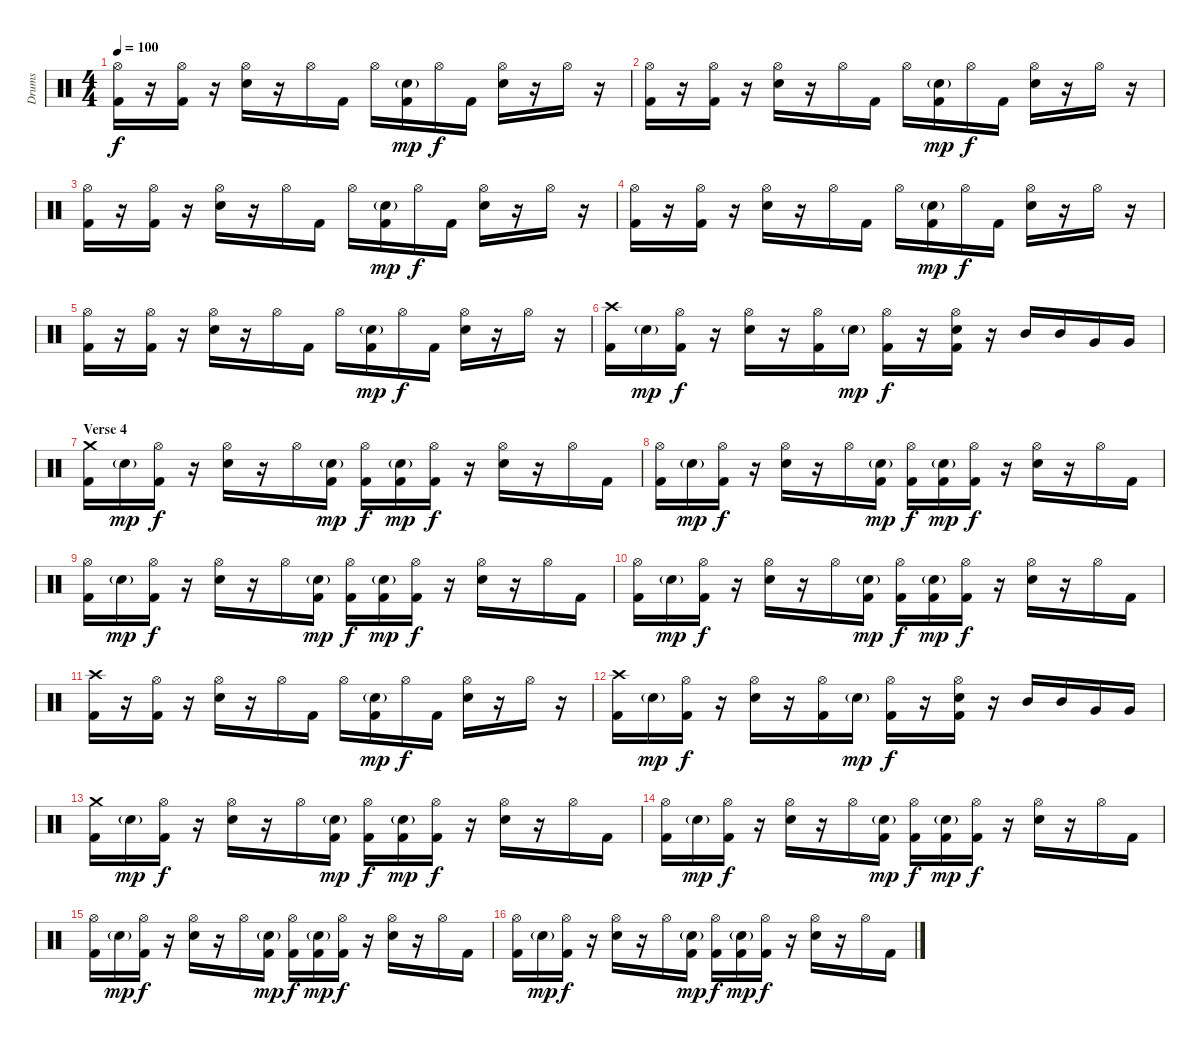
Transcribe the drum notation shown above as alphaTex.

\track ("Drums" "Drums") {instrument percussion}
\staff {score}
\articulation defaults
\ts (4 4)
\tempo 100
\clef neutral
\ks c
("Hi-Hat (open)" "Kick (hit) 2").16{dy f} r.16 ("Hi-Hat (open)" "Kick (hit) 2").16 r.16 ("Hi-Hat (open)" "Snare (hit) 2").16 r.16 "Hi-Hat (open)".16 "Kick (hit) 2".16 "Hi-Hat (open)".16 ("Snare (hit) 2"{g} "Kick (hit) 2").16{dy mp} "Hi-Hat (open)".16{dy f} "Kick (hit) 2".16 ("Hi-Hat (open)" "Snare (hit) 2").16 r.16 "Hi-Hat (open)".16 r.16 |
("Hi-Hat (open)" "Kick (hit) 2").16 r.16 ("Hi-Hat (open)" "Kick (hit) 2").16 r.16 ("Hi-Hat (open)" "Snare (hit) 2").16 r.16 "Hi-Hat (open)".16 "Kick (hit) 2".16 "Hi-Hat (open)".16 ("Snare (hit) 2"{g} "Kick (hit) 2").16{dy mp} "Hi-Hat (open)".16{dy f} "Kick (hit) 2".16 ("Hi-Hat (open)" "Snare (hit) 2").16 r.16 "Hi-Hat (open)".16 r.16 |
("Hi-Hat (open)" "Kick (hit) 2").16 r.16 ("Hi-Hat (open)" "Kick (hit) 2").16 r.16 ("Hi-Hat (open)" "Snare (hit) 2").16 r.16 "Hi-Hat (open)".16 "Kick (hit) 2".16 "Hi-Hat (open)".16 ("Snare (hit) 2"{g} "Kick (hit) 2").16{dy mp} "Hi-Hat (open)".16{dy f} "Kick (hit) 2".16 ("Hi-Hat (open)" "Snare (hit) 2").16 r.16 "Hi-Hat (open)".16 r.16 |
("Hi-Hat (open)" "Kick (hit) 2").16 r.16 ("Hi-Hat (open)" "Kick (hit) 2").16 r.16 ("Hi-Hat (open)" "Snare (hit) 2").16 r.16 "Hi-Hat (open)".16 "Kick (hit) 2".16 "Hi-Hat (open)".16 ("Snare (hit) 2"{g} "Kick (hit) 2").16{dy mp} "Hi-Hat (open)".16{dy f} "Kick (hit) 2".16 ("Hi-Hat (open)" "Snare (hit) 2").16 r.16 "Hi-Hat (open)".16 r.16 |
("Hi-Hat (open)" "Kick (hit) 2").16 r.16 ("Hi-Hat (open)" "Kick (hit) 2").16 r.16 ("Hi-Hat (open)" "Snare (hit) 2").16 r.16 "Hi-Hat (open)".16 "Kick (hit) 2".16 "Hi-Hat (open)".16 ("Snare (hit) 2"{g} "Kick (hit) 2").16{dy mp} "Hi-Hat (open)".16{dy f} "Kick (hit) 2".16 ("Hi-Hat (open)" "Snare (hit) 2").16 r.16 "Hi-Hat (open)".16 r.16 |
("Crash high (hit)" "Kick (hit) 2").16 "Snare (hit) 2"{g}.16{dy mp} ("Hi-Hat (open)" "Kick (hit) 2").16{dy f} r.16 ("Hi-Hat (open)" "Snare (hit) 2").16 r.16 ("Hi-Hat (open)" "Kick (hit) 2").16 "Snare (hit) 2"{g}.16{dy mp} ("Hi-Hat (open)" "Kick (hit) 2").16{dy f} r.16 ("Hi-Hat (open)" "Snare (hit) 2" "Kick (hit) 2").16 r.16 "Mid Tom (hit)".16 "Mid Tom (hit)".16 "Very Low Tom (hit)".16 "Very Low Tom (hit)".16 |
\section ("" "Verse 4")
("Crash medium (hit)" "Kick (hit) 2").16 "Snare (hit) 2"{g}.16{dy mp} ("Hi-Hat (open)" "Kick (hit) 2").16{dy f} r.16 ("Hi-Hat (open)" "Snare (hit) 2").16 r.16 "Hi-Hat (open)".16 ("Snare (hit) 2"{g} "Kick (hit) 2").16{dy mp} ("Hi-Hat (open)" "Kick (hit) 2").16{dy f} ("Snare (hit) 2"{g} "Kick (hit) 2").16{dy mp} ("Hi-Hat (open)" "Kick (hit) 2").16{dy f} r.16 ("Hi-Hat (open)" "Snare (hit) 2").16 r.16 "Hi-Hat (open)".16 "Kick (hit) 2".16 |
("Hi-Hat (open)" "Kick (hit) 2").16 "Snare (hit) 2"{g}.16{dy mp} ("Hi-Hat (open)" "Kick (hit) 2").16{dy f} r.16 ("Hi-Hat (open)" "Snare (hit) 2").16 r.16 "Hi-Hat (open)".16 ("Snare (hit) 2"{g} "Kick (hit) 2").16{dy mp} ("Hi-Hat (open)" "Kick (hit) 2").16{dy f} ("Snare (hit) 2"{g} "Kick (hit) 2").16{dy mp} ("Hi-Hat (open)" "Kick (hit) 2").16{dy f} r.16 ("Hi-Hat (open)" "Snare (hit) 2").16 r.16 "Hi-Hat (open)".16 "Kick (hit) 2".16 |
("Hi-Hat (open)" "Kick (hit) 2").16 "Snare (hit) 2"{g}.16{dy mp} ("Hi-Hat (open)" "Kick (hit) 2").16{dy f} r.16 ("Hi-Hat (open)" "Snare (hit) 2").16 r.16 "Hi-Hat (open)".16 ("Snare (hit) 2"{g} "Kick (hit) 2").16{dy mp} ("Hi-Hat (open)" "Kick (hit) 2").16{dy f} ("Snare (hit) 2"{g} "Kick (hit) 2").16{dy mp} ("Hi-Hat (open)" "Kick (hit) 2").16{dy f} r.16 ("Hi-Hat (open)" "Snare (hit) 2").16 r.16 "Hi-Hat (open)".16 "Kick (hit) 2".16 |
("Hi-Hat (open)" "Kick (hit) 2").16 "Snare (hit) 2"{g}.16{dy mp} ("Hi-Hat (open)" "Kick (hit) 2").16{dy f} r.16 ("Hi-Hat (open)" "Snare (hit) 2").16 r.16 "Hi-Hat (open)".16 ("Snare (hit) 2"{g} "Kick (hit) 2").16{dy mp} ("Hi-Hat (open)" "Kick (hit) 2").16{dy f} ("Snare (hit) 2"{g} "Kick (hit) 2").16{dy mp} ("Hi-Hat (open)" "Kick (hit) 2").16{dy f} r.16 ("Hi-Hat (open)" "Snare (hit) 2").16 r.16 "Hi-Hat (open)".16 "Kick (hit) 2".16 |
("Crash high (hit)" "Kick (hit) 2").16 r.16 ("Hi-Hat (open)" "Kick (hit) 2").16 r.16 ("Hi-Hat (open)" "Snare (hit) 2").16 r.16 "Hi-Hat (open)".16 "Kick (hit) 2".16 "Hi-Hat (open)".16 ("Snare (hit) 2"{g} "Kick (hit) 2").16{dy mp} "Hi-Hat (open)".16{dy f} "Kick (hit) 2".16 ("Hi-Hat (open)" "Snare (hit) 2").16 r.16 "Hi-Hat (open)".16 r.16 |
("Crash high (hit)" "Kick (hit) 2").16 "Snare (hit) 2"{g}.16{dy mp} ("Hi-Hat (open)" "Kick (hit) 2").16{dy f} r.16 ("Hi-Hat (open)" "Snare (hit) 2").16 r.16 ("Hi-Hat (open)" "Kick (hit) 2").16 "Snare (hit) 2"{g}.16{dy mp} ("Hi-Hat (open)" "Kick (hit) 2").16{dy f} r.16 ("Hi-Hat (open)" "Snare (hit) 2" "Kick (hit) 2").16 r.16 "Mid Tom (hit)".16 "Mid Tom (hit)".16 "Very Low Tom (hit)".16 "Very Low Tom (hit)".16 |
("Crash medium (hit)" "Kick (hit) 2").16 "Snare (hit) 2"{g}.16{dy mp} ("Hi-Hat (open)" "Kick (hit) 2").16{dy f} r.16 ("Hi-Hat (open)" "Snare (hit) 2").16 r.16 "Hi-Hat (open)".16 ("Snare (hit) 2"{g} "Kick (hit) 2").16{dy mp} ("Hi-Hat (open)" "Kick (hit) 2").16{dy f} ("Snare (hit) 2"{g} "Kick (hit) 2").16{dy mp} ("Hi-Hat (open)" "Kick (hit) 2").16{dy f} r.16 ("Hi-Hat (open)" "Snare (hit) 2").16 r.16 "Hi-Hat (open)".16 "Kick (hit) 2".16 |
("Hi-Hat (open)" "Kick (hit) 2").16 "Snare (hit) 2"{g}.16{dy mp} ("Hi-Hat (open)" "Kick (hit) 2").16{dy f} r.16 ("Hi-Hat (open)" "Snare (hit) 2").16 r.16 "Hi-Hat (open)".16 ("Snare (hit) 2"{g} "Kick (hit) 2").16{dy mp} ("Hi-Hat (open)" "Kick (hit) 2").16{dy f} ("Snare (hit) 2"{g} "Kick (hit) 2").16{dy mp} ("Hi-Hat (open)" "Kick (hit) 2").16{dy f} r.16 ("Hi-Hat (open)" "Snare (hit) 2").16 r.16 "Hi-Hat (open)".16 "Kick (hit) 2".16 |
("Hi-Hat (open)" "Kick (hit) 2").16 "Snare (hit) 2"{g}.16{dy mp} ("Hi-Hat (open)" "Kick (hit) 2").16{dy f} r.16 ("Hi-Hat (open)" "Snare (hit) 2").16 r.16 "Hi-Hat (open)".16 ("Snare (hit) 2"{g} "Kick (hit) 2").16{dy mp} ("Hi-Hat (open)" "Kick (hit) 2").16{dy f} ("Snare (hit) 2"{g} "Kick (hit) 2").16{dy mp} ("Hi-Hat (open)" "Kick (hit) 2").16{dy f} r.16 ("Hi-Hat (open)" "Snare (hit) 2").16 r.16 "Hi-Hat (open)".16 "Kick (hit) 2".16 |
("Hi-Hat (open)" "Kick (hit) 2").16 "Snare (hit) 2"{g}.16{dy mp} ("Hi-Hat (open)" "Kick (hit) 2").16{dy f} r.16 ("Hi-Hat (open)" "Snare (hit) 2").16 r.16 "Hi-Hat (open)".16 ("Snare (hit) 2"{g} "Kick (hit) 2").16{dy mp} ("Hi-Hat (open)" "Kick (hit) 2").16{dy f} ("Snare (hit) 2"{g} "Kick (hit) 2").16{dy mp} ("Hi-Hat (open)" "Kick (hit) 2").16{dy f} r.16 ("Hi-Hat (open)" "Snare (hit) 2").16 r.16 "Hi-Hat (open)".16 "Kick (hit) 2".16
